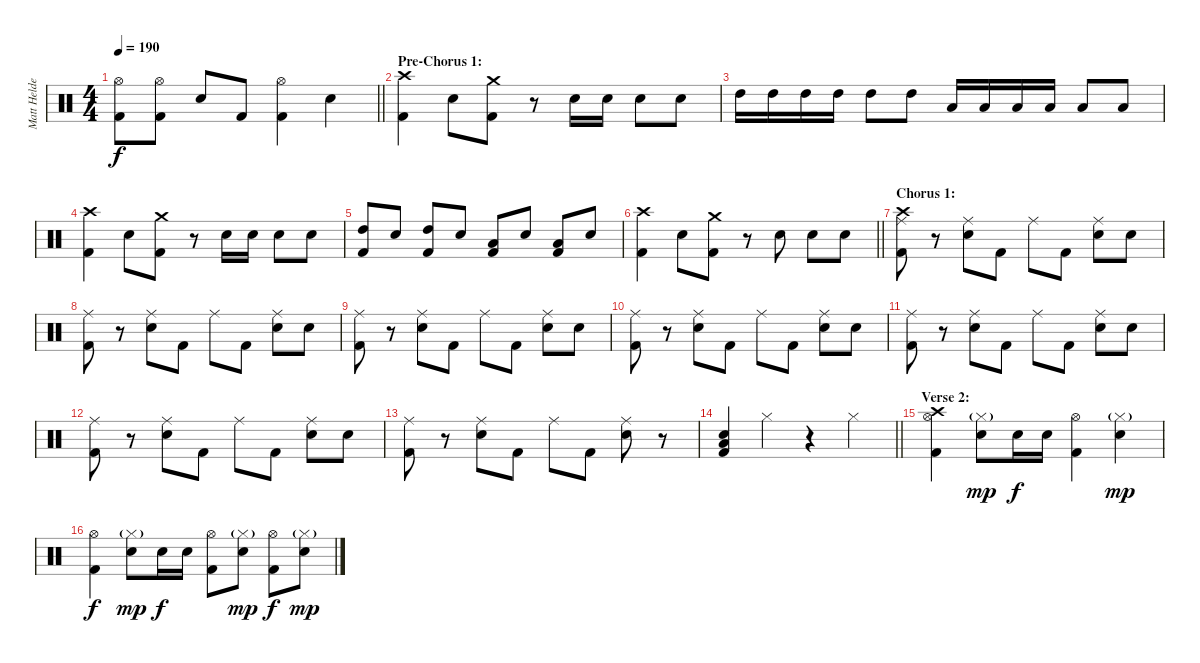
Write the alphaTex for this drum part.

\track ("Matt Helders (Percussion)" "Matt Helde") {instrument percussion}
\staff {score}
\articulation defaults
\ts (4 4)
\tempo 190
\clef neutral
\barLineRight lightlight
\ks c
("Hi-Hat (open)" "Kick (hit) 2").8{dy f} ("Hi-Hat (open)" "Kick (hit) 2").8 "Snare (hit) 2".8 "Kick (hit) 2".8 ("Hi-Hat (open)" "Kick (hit) 2").4 "Snare (hit) 2".4 |
\section ("" "Pre-Chorus 1:")
("Crash high (hit)" "Kick (hit) 2").4 "Snare (hit) 2".8 ("Crash medium (hit)" "Kick (hit) 2").8 r.8 "Snare (hit) 2".16 "Snare (hit) 2".16 "Snare (hit) 2".8 "Snare (hit) 2".8 |
"High Tom (hit)".16 "High Tom (hit)".16 "High Tom (hit)".16 "High Tom (hit)".16 "High Tom (hit)".8 "High Tom (hit)".8 "Low Tom (hit)".16 "Low Tom (hit)".16 "Low Tom (hit)".16 "Low Tom (hit)".16 "Low Tom (hit)".8 "Low Tom (hit)".8 |
("Crash high (hit)" "Kick (hit) 2").4 "Snare (hit) 2".8 ("Crash medium (hit)" "Kick (hit) 2").8 r.8 "Snare (hit) 2".16 "Snare (hit) 2".16 "Snare (hit) 2".8 "Snare (hit) 2".8 |
("High Tom (hit)" "Kick (hit) 2").8 "Snare (hit) 2".8 ("High Tom (hit)" "Kick (hit) 2").8 "Snare (hit) 2".8 ("Low Tom (hit)" "Kick (hit) 2").8 "Snare (hit) 2".8 ("Low Tom (hit)" "Kick (hit) 2").8 "Snare (hit) 2".8 |
\barLineRight lightlight
("Crash high (hit)" "Kick (hit) 2").4 "Snare (hit) 2".8 ("Crash medium (hit)" "Kick (hit) 2").8 r.8 "Snare (hit) 2".8 "Snare (hit) 2".8 "Snare (hit) 2".8 |
\section ("" "Chorus 1:")
("Crash high (hit)" "Ride (middle)" "Kick (hit) 2").8 r.8 ("Ride (middle)" "Snare (hit) 2").8 "Kick (hit) 2".8 "Ride (middle)".8 "Kick (hit) 2".8 ("Ride (middle)" "Snare (hit) 2").8 "Snare (hit) 2".8 |
("Ride (middle)" "Kick (hit) 2").8 r.8 ("Ride (middle)" "Snare (hit) 2").8 "Kick (hit) 2".8 "Ride (middle)".8 "Kick (hit) 2".8 ("Ride (middle)" "Snare (hit) 2").8 "Snare (hit) 2".8 |
("Ride (middle)" "Kick (hit) 2").8 r.8 ("Ride (middle)" "Snare (hit) 2").8 "Kick (hit) 2".8 "Ride (middle)".8 "Kick (hit) 2".8 ("Ride (middle)" "Snare (hit) 2").8 "Snare (hit) 2".8 |
("Ride (middle)" "Kick (hit) 2").8 r.8 ("Ride (middle)" "Snare (hit) 2").8 "Kick (hit) 2".8 "Ride (middle)".8 "Kick (hit) 2".8 ("Ride (middle)" "Snare (hit) 2").8 "Snare (hit) 2".8 |
("Ride (middle)" "Kick (hit) 2").8 r.8 ("Ride (middle)" "Snare (hit) 2").8 "Kick (hit) 2".8 "Ride (middle)".8 "Kick (hit) 2".8 ("Ride (middle)" "Snare (hit) 2").8 "Snare (hit) 2".8 |
("Ride (middle)" "Kick (hit) 2").8 r.8 ("Ride (middle)" "Snare (hit) 2").8 "Kick (hit) 2".8 "Ride (middle)".8 "Kick (hit) 2".8 ("Ride (middle)" "Snare (hit) 2").8 "Snare (hit) 2".8 |
("Ride (middle)" "Kick (hit) 2").8 r.8 ("Ride (middle)" "Snare (hit) 2").8 "Kick (hit) 2".8 "Ride (middle)".8 "Kick (hit) 2".8 ("Ride (middle)" "Snare (hit) 2").8 r.8 |
\barLineRight lightlight
("Snare (hit) 2" "Low Tom (hit)" "Kick (hit) 2").4 "Hi-Hat (closed)".4 r.4 "Hi-Hat (closed)".4 |
\section ("" "Verse 2:")
("Crash high (hit)" "Hi-Hat (open)" "Kick (hit) 2").4 ("Hi-Hat (closed)"{g} "Snare (hit) 2").8{dy mp} "Snare (hit) 2".16{dy f} "Snare (hit) 2".16 ("Hi-Hat (open)" "Kick (hit) 2").4 ("Hi-Hat (closed)"{g} "Snare (hit) 2").4{dy mp} |
("Hi-Hat (open)" "Kick (hit) 2").4{dy f} ("Hi-Hat (closed)"{g} "Snare (hit) 2").8{dy mp} "Snare (hit) 2".16{dy f} "Snare (hit) 2".16 ("Hi-Hat (open)" "Kick (hit) 2").8 ("Hi-Hat (closed)"{g} "Snare (hit) 2").8{dy mp} ("Hi-Hat (open)" "Kick (hit) 2").8{dy f} ("Hi-Hat (closed)"{g} "Snare (hit) 2").8{dy mp}
